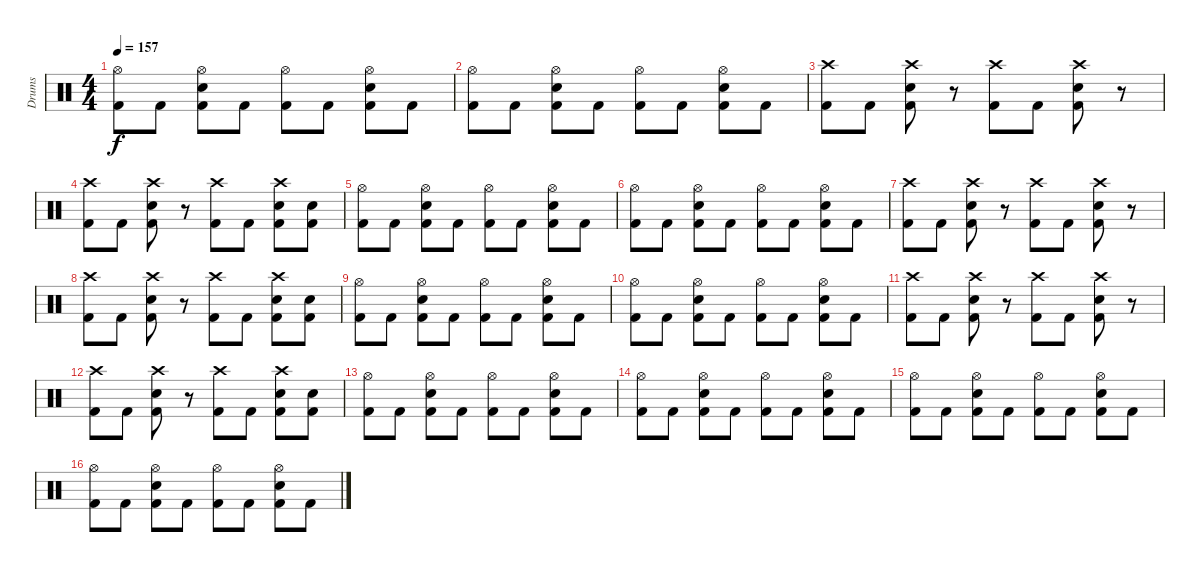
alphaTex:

\track ("Drums" "Drums") {instrument percussion}
\staff {score}
\articulation defaults
\ts (4 4)
\section ("" "")
\tempo 157
\clef neutral
\ks c
("Hi-Hat (open)" "Kick (hit) 2").8{dy f} "Kick (hit) 2".8 ("Hi-Hat (open)" "Electric Snare (hit)" "Kick (hit) 2").8 "Kick (hit) 2".8 ("Hi-Hat (open)" "Kick (hit) 2").8 "Kick (hit) 2".8 ("Hi-Hat (open)" "Kick (hit) 2" "Electric Snare (hit)").8 "Kick (hit) 2".8 |
("Hi-Hat (open)" "Kick (hit) 2").8 "Kick (hit) 2".8 ("Hi-Hat (open)" "Electric Snare (hit)" "Kick (hit) 2").8 "Kick (hit) 2".8 ("Hi-Hat (open)" "Kick (hit) 2").8 "Kick (hit) 2".8 ("Hi-Hat (open)" "Kick (hit) 2" "Electric Snare (hit)").8 "Kick (hit) 2".8 |
("Crash high (hit)" "Kick (hit) 2").8 "Kick (hit) 2".8 ("Crash high (hit)" "Electric Snare (hit)" "Kick (hit) 2").8 r.8 ("Crash high (hit)" "Kick (hit) 2").8 "Kick (hit) 2".8 ("Crash high (hit)" "Electric Snare (hit)" "Kick (hit) 2").8 r.8 |
("Crash high (hit)" "Kick (hit) 2").8 "Kick (hit) 2".8 ("Crash high (hit)" "Electric Snare (hit)" "Kick (hit) 2").8 r.8 ("Crash high (hit)" "Kick (hit) 2").8 "Kick (hit) 2".8 ("Crash high (hit)" "Electric Snare (hit)" "Kick (hit) 2").8 ("Electric Snare (hit)" "Kick (hit) 2").8 |
("Hi-Hat (open)" "Kick (hit) 2").8 "Kick (hit) 2".8 ("Hi-Hat (open)" "Electric Snare (hit)" "Kick (hit) 2").8 "Kick (hit) 2".8 ("Hi-Hat (open)" "Kick (hit) 2").8 "Kick (hit) 2".8 ("Hi-Hat (open)" "Kick (hit) 2" "Electric Snare (hit)").8 "Kick (hit) 2".8 |
("Hi-Hat (open)" "Kick (hit) 2").8 "Kick (hit) 2".8 ("Hi-Hat (open)" "Electric Snare (hit)" "Kick (hit) 2").8 "Kick (hit) 2".8 ("Hi-Hat (open)" "Kick (hit) 2").8 "Kick (hit) 2".8 ("Hi-Hat (open)" "Kick (hit) 2" "Electric Snare (hit)").8 "Kick (hit) 2".8 |
("Crash high (hit)" "Kick (hit) 2").8 "Kick (hit) 2".8 ("Crash high (hit)" "Electric Snare (hit)" "Kick (hit) 2").8 r.8 ("Crash high (hit)" "Kick (hit) 2").8 "Kick (hit) 2".8 ("Crash high (hit)" "Electric Snare (hit)" "Kick (hit) 2").8 r.8 |
("Crash high (hit)" "Kick (hit) 2").8 "Kick (hit) 2".8 ("Crash high (hit)" "Electric Snare (hit)" "Kick (hit) 2").8 r.8 ("Crash high (hit)" "Kick (hit) 2").8 "Kick (hit) 2".8 ("Crash high (hit)" "Electric Snare (hit)" "Kick (hit) 2").8 ("Electric Snare (hit)" "Kick (hit) 2").8 |
("Hi-Hat (open)" "Kick (hit) 2").8 "Kick (hit) 2".8 ("Hi-Hat (open)" "Electric Snare (hit)" "Kick (hit) 2").8 "Kick (hit) 2".8 ("Hi-Hat (open)" "Kick (hit) 2").8 "Kick (hit) 2".8 ("Hi-Hat (open)" "Kick (hit) 2" "Electric Snare (hit)").8 "Kick (hit) 2".8 |
("Hi-Hat (open)" "Kick (hit) 2").8 "Kick (hit) 2".8 ("Hi-Hat (open)" "Electric Snare (hit)" "Kick (hit) 2").8 "Kick (hit) 2".8 ("Hi-Hat (open)" "Kick (hit) 2").8 "Kick (hit) 2".8 ("Hi-Hat (open)" "Kick (hit) 2" "Electric Snare (hit)").8 "Kick (hit) 2".8 |
("Crash high (hit)" "Kick (hit) 2").8 "Kick (hit) 2".8 ("Crash high (hit)" "Electric Snare (hit)" "Kick (hit) 2").8 r.8 ("Crash high (hit)" "Kick (hit) 2").8 "Kick (hit) 2".8 ("Crash high (hit)" "Electric Snare (hit)" "Kick (hit) 2").8 r.8 |
("Crash high (hit)" "Kick (hit) 2").8 "Kick (hit) 2".8 ("Crash high (hit)" "Electric Snare (hit)" "Kick (hit) 2").8 r.8 ("Crash high (hit)" "Kick (hit) 2").8 "Kick (hit) 2".8 ("Crash high (hit)" "Electric Snare (hit)" "Kick (hit) 2").8 ("Electric Snare (hit)" "Kick (hit) 2").8 |
("Hi-Hat (open)" "Kick (hit) 2").8 "Kick (hit) 2".8 ("Hi-Hat (open)" "Electric Snare (hit)" "Kick (hit) 2").8 "Kick (hit) 2".8 ("Hi-Hat (open)" "Kick (hit) 2").8 "Kick (hit) 2".8 ("Hi-Hat (open)" "Kick (hit) 2" "Electric Snare (hit)").8 "Kick (hit) 2".8 |
("Hi-Hat (open)" "Kick (hit) 2").8 "Kick (hit) 2".8 ("Hi-Hat (open)" "Electric Snare (hit)" "Kick (hit) 2").8 "Kick (hit) 2".8 ("Hi-Hat (open)" "Kick (hit) 2").8 "Kick (hit) 2".8 ("Hi-Hat (open)" "Kick (hit) 2" "Electric Snare (hit)").8 "Kick (hit) 2".8 |
("Hi-Hat (open)" "Kick (hit) 2").8 "Kick (hit) 2".8 ("Hi-Hat (open)" "Electric Snare (hit)" "Kick (hit) 2").8 "Kick (hit) 2".8 ("Hi-Hat (open)" "Kick (hit) 2").8 "Kick (hit) 2".8 ("Hi-Hat (open)" "Kick (hit) 2" "Electric Snare (hit)").8 "Kick (hit) 2".8 |
("Hi-Hat (open)" "Kick (hit) 2").8 "Kick (hit) 2".8 ("Hi-Hat (open)" "Electric Snare (hit)" "Kick (hit) 2").8 "Kick (hit) 2".8 ("Hi-Hat (open)" "Kick (hit) 2").8 "Kick (hit) 2".8 ("Hi-Hat (open)" "Kick (hit) 2" "Electric Snare (hit)").8 "Kick (hit) 2".8
